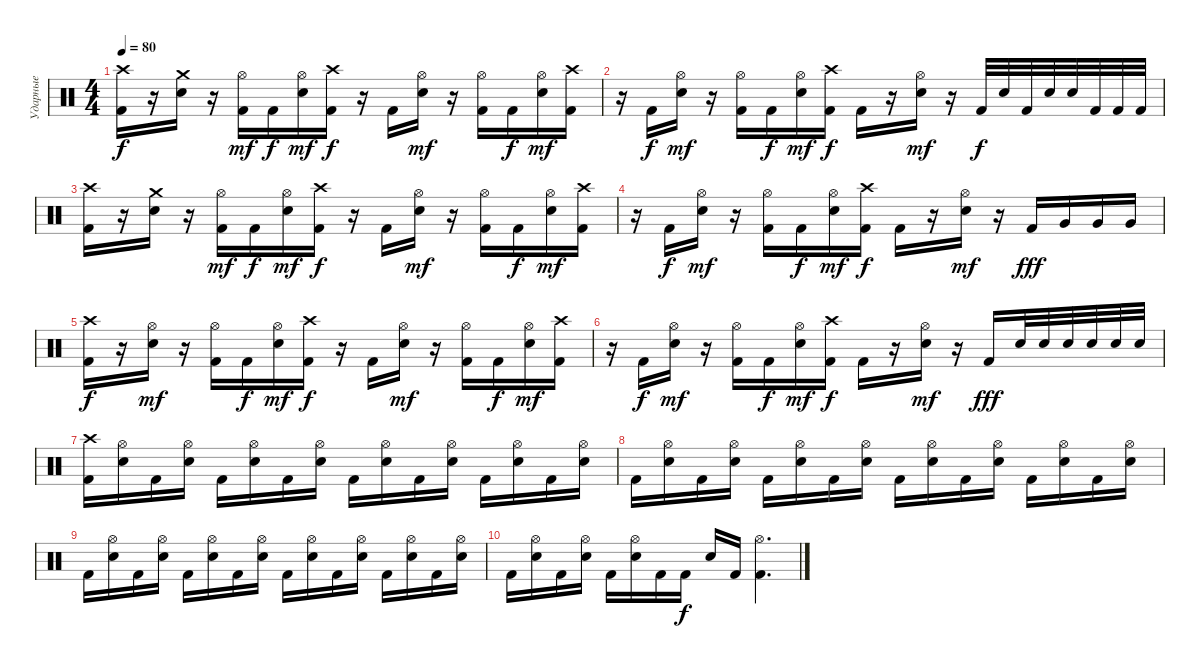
\track ("Ударные" "Ударные") {instrument percussion}
\staff {score}
\articulation defaults
\ts (4 4)
\tempo 80
\clef neutral
\ks c
("Kick (hit) 2" "Crash high (hit)").16{dy f} r.16 ("Electric Snare (hit)" "Crash medium (hit)").16 r.16 ("Kick (hit) 2" "Hi-Hat (open)").16{dy mf} "Kick (hit) 2".16{dy f} ("Electric Snare (hit)" "Hi-Hat (open)").16{dy mf} ("Crash high (hit)" "Kick (hit) 2").16{dy f} r.16 "Kick (hit) 2".16 ("Electric Snare (hit)" "Hi-Hat (open)").16{dy mf} r.16 ("Kick (hit) 2" "Hi-Hat (open)").16 "Kick (hit) 2".16{dy f} ("Electric Snare (hit)" "Hi-Hat (open)").16{dy mf} ("Crash high (hit)" "Kick (hit) 2").16 |
r.16 "Kick (hit) 2".16{dy f} ("Electric Snare (hit)" "Hi-Hat (open)").16{dy mf} r.16 ("Kick (hit) 2" "Hi-Hat (open)").16 "Kick (hit) 2".16{dy f} ("Electric Snare (hit)" "Hi-Hat (open)").16{dy mf} ("Crash high (hit)" "Kick (hit) 2").16{dy f} "Kick (hit) 2".16 r.16 ("Electric Snare (hit)" "Hi-Hat (open)").16{dy mf} r.16 "Kick (hit) 2".32{dy f} "Electric Snare (hit)".32 "Kick (hit) 2".32 "Electric Snare (hit)".32 "Electric Snare (hit)".32 "Kick (hit) 2".32 "Kick (hit) 2".32 "Kick (hit) 2".32 |
("Kick (hit) 2" "Crash high (hit)").16 r.16 ("Electric Snare (hit)" "Crash medium (hit)").16 r.16 ("Kick (hit) 2" "Hi-Hat (open)").16{dy mf} "Kick (hit) 2".16{dy f} ("Electric Snare (hit)" "Hi-Hat (open)").16{dy mf} ("Crash high (hit)" "Kick (hit) 2").16{dy f} r.16 "Kick (hit) 2".16 ("Electric Snare (hit)" "Hi-Hat (open)").16{dy mf} r.16 ("Kick (hit) 2" "Hi-Hat (open)").16 "Kick (hit) 2".16{dy f} ("Electric Snare (hit)" "Hi-Hat (open)").16{dy mf} ("Crash high (hit)" "Kick (hit) 2").16 |
r.16 "Kick (hit) 2".16{dy f} ("Electric Snare (hit)" "Hi-Hat (open)").16{dy mf} r.16 ("Kick (hit) 2" "Hi-Hat (open)").16 "Kick (hit) 2".16{dy f} ("Electric Snare (hit)" "Hi-Hat (open)").16{dy mf} ("Crash high (hit)" "Kick (hit) 2").16{dy f} "Kick (hit) 2".16 r.16 ("Electric Snare (hit)" "Hi-Hat (open)").16{dy mf} r.16 "Kick (hit) 2".16{dy fff} "Very Low Tom (hit)".16 "Very Low Tom (hit)".16 "Very Low Tom (hit)".16 |
("Kick (hit) 2" "Crash high (hit)").16{dy f} r.16 ("Electric Snare (hit)" "Hi-Hat (open)").16{dy mf} r.16 ("Kick (hit) 2" "Hi-Hat (open)").16 "Kick (hit) 2".16{dy f} ("Electric Snare (hit)" "Hi-Hat (open)").16{dy mf} ("Crash high (hit)" "Kick (hit) 2").16{dy f} r.16 "Kick (hit) 2".16 ("Electric Snare (hit)" "Hi-Hat (open)").16{dy mf} r.16 ("Kick (hit) 2" "Hi-Hat (open)").16 "Kick (hit) 2".16{dy f} ("Electric Snare (hit)" "Hi-Hat (open)").16{dy mf} ("Crash high (hit)" "Kick (hit) 2").16 |
r.16 "Kick (hit) 2".16{dy f} ("Electric Snare (hit)" "Hi-Hat (open)").16{dy mf} r.16 ("Kick (hit) 2" "Hi-Hat (open)").16 "Kick (hit) 2".16{dy f} ("Electric Snare (hit)" "Hi-Hat (open)").16{dy mf} ("Crash high (hit)" "Kick (hit) 2").16{dy f} "Kick (hit) 2".16 r.16 ("Electric Snare (hit)" "Hi-Hat (open)").16{dy mf} r.16 "Kick (hit) 2".16{dy fff} "Electric Snare (hit)".32 "Electric Snare (hit)".32 "Electric Snare (hit)".32 "Electric Snare (hit)".32 "Electric Snare (hit)".32 "Electric Snare (hit)".32 |
("Kick (hit) 2" "Crash high (hit)").16 ("Electric Snare (hit)" "Hi-Hat (open)").16 "Kick (hit) 2".16 ("Electric Snare (hit)" "Hi-Hat (open)").16 "Kick (hit) 2".16 ("Electric Snare (hit)" "Hi-Hat (open)").16 "Kick (hit) 2".16 ("Electric Snare (hit)" "Hi-Hat (open)").16 "Kick (hit) 2".16 ("Electric Snare (hit)" "Hi-Hat (open)").16 "Kick (hit) 2".16 ("Electric Snare (hit)" "Hi-Hat (open)").16 "Kick (hit) 2".16 ("Electric Snare (hit)" "Hi-Hat (open)").16 "Kick (hit) 2".16 ("Electric Snare (hit)" "Hi-Hat (open)").16 |
"Kick (hit) 2".16 ("Electric Snare (hit)" "Hi-Hat (open)").16 "Kick (hit) 2".16 ("Electric Snare (hit)" "Hi-Hat (open)").16 "Kick (hit) 2".16 ("Electric Snare (hit)" "Hi-Hat (open)").16 "Kick (hit) 2".16 ("Electric Snare (hit)" "Hi-Hat (open)").16 "Kick (hit) 2".16 ("Electric Snare (hit)" "Hi-Hat (open)").16 "Kick (hit) 2".16 ("Electric Snare (hit)" "Hi-Hat (open)").16 "Kick (hit) 2".16 ("Electric Snare (hit)" "Hi-Hat (open)").16 "Kick (hit) 2".16 ("Electric Snare (hit)" "Hi-Hat (open)").16 |
"Kick (hit) 2".16 ("Electric Snare (hit)" "Hi-Hat (open)").16 "Kick (hit) 2".16 ("Electric Snare (hit)" "Hi-Hat (open)").16 "Kick (hit) 2".16 ("Electric Snare (hit)" "Hi-Hat (open)").16 "Kick (hit) 2".16 ("Electric Snare (hit)" "Hi-Hat (open)").16 "Kick (hit) 2".16 ("Electric Snare (hit)" "Hi-Hat (open)").16 "Kick (hit) 2".16 ("Electric Snare (hit)" "Hi-Hat (open)").16 "Kick (hit) 2".16 ("Electric Snare (hit)" "Hi-Hat (open)").16 "Kick (hit) 2".16 ("Electric Snare (hit)" "Hi-Hat (open)").16 |
"Kick (hit) 2".16 ("Electric Snare (hit)" "Hi-Hat (open)").16 "Kick (hit) 2".16 ("Electric Snare (hit)" "Hi-Hat (open)").16 "Kick (hit) 2".16 ("Electric Snare (hit)" "Hi-Hat (open)").16 "Kick (hit) 2".16 "Kick (hit) 2".16{dy f} "Electric Snare (hit)".16 "Kick (hit) 2".16 ("Kick (hit) 2" "Hi-Hat (open)").4{d}
